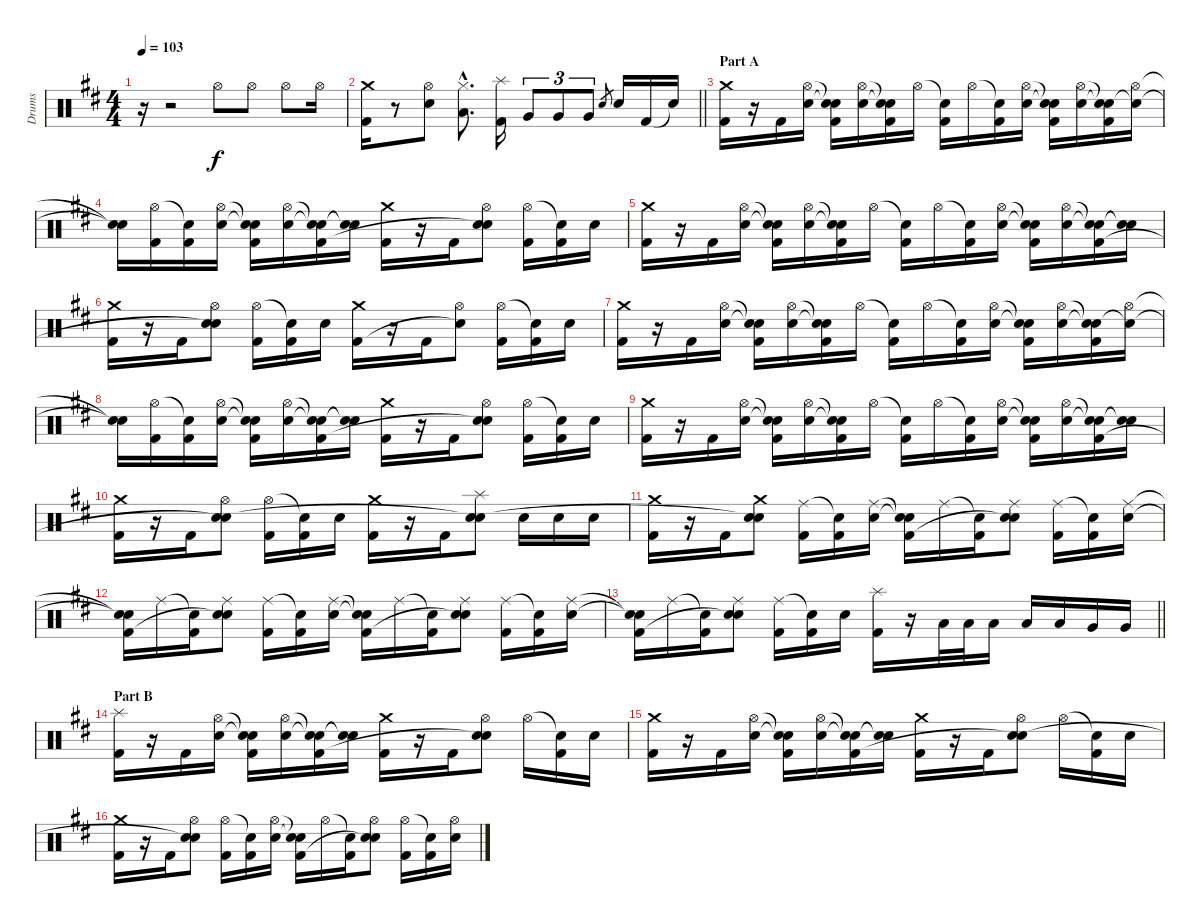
\track ("Drums" "Drums") {instrument percussion}
\staff {score}
\articulation defaults
\ts (4 4)
\tempo 103
\clef neutral
\ks d
r.16{dy f} r.2 "Hi-Hat (open)".8 "Hi-Hat (open)".8 "Hi-Hat (open)".8 "Hi-Hat (open)".16 |
\barLineRight lightlight
("Crash medium (hit)" "Kick (hit) 2").16 r.8 ("Hi-Hat (open)" "Electric Snare (hit)").8 ("Hi-Hat (closed)"{hac} "Low Floor Tom (hit)"{hac}).8{d} ("Splash (hit)" "Kick (hit) 2").16 "Very Low Tom (hit)".8{tu (3 2)} "Very Low Tom (hit)".8{tu (3 2)} "Very Low Tom (hit)".8{tu (3 2)} "Electric Snare (hit)".8{gr} "Electric Snare (hit)".16 "Kick (hit) 2".16 "Snare (hit)"{t}.16 |
\section ("" "Part A")
("Crash medium (hit)" "Kick (hit) 2").16 r.16 "Kick (hit) 2".16 ("Hi-Hat (open)" "Electric Snare (hit)").16 ("Snare (hit)"{t} "Snare (hit)"{t} "Kick (hit) 2").16 ("Hi-Hat (open)" "Electric Snare (hit)").16 ("Snare (hit)"{t} "Snare (hit)"{t} "Kick (hit) 2").16 "Hi-Hat (open)".16 ("Snare (hit)"{t} "Kick (hit) 2").16 "Hi-Hat (open)".16 ("Snare (hit)"{t} "Kick (hit) 2").16 ("Hi-Hat (open)" "Electric Snare (hit)").16 ("Snare (hit)"{t} "Snare (hit)"{t} "Kick (hit) 2").16 ("Hi-Hat (open)" "Electric Snare (hit)").16 ("Snare (hit)"{t} "Snare (hit)"{t} "Kick (hit) 2").16 ("Hi-Hat (open)" "Snare (hit)"{t}).16 |
("Snare (hit)"{t} "Snare (hit)"{t}).16 ("Hi-Hat (open)" "Kick (hit) 2").16 ("Snare (hit)"{t} "Kick (hit) 2").16 ("Hi-Hat (open)" "Electric Snare (hit)").16 ("Snare (hit)"{t} "Snare (hit)"{t} "Kick (hit) 2").16 ("Hi-Hat (open)" "Electric Snare (hit)").16 ("Snare (hit)"{t} "Snare (hit)"{t} "Kick (hit) 2").16 ("Snare (hit)"{t} "Snare (hit)"{t}).16 ("Crash medium (hit)" "Kick (hit) 2").16 r.16 "Kick (hit) 2".16 ("Hi-Hat (open)" "Electric Snare (hit)" "Snare (hit)"{t}).8 ("Hi-Hat (open)" "Kick (hit) 2").16 ("Snare (hit)"{t} "Kick (hit) 2").16 "Electric Snare (hit)".16 |
("Crash medium (hit)" "Kick (hit) 2").16 r.16 "Kick (hit) 2".16 ("Hi-Hat (open)" "Electric Snare (hit)").16 ("Snare (hit)"{t} "Snare (hit)"{t} "Kick (hit) 2").16 ("Hi-Hat (open)" "Electric Snare (hit)").16 ("Snare (hit)"{t} "Snare (hit)"{t} "Kick (hit) 2").16 "Hi-Hat (open)".16 ("Snare (hit)"{t} "Kick (hit) 2").16 "Hi-Hat (open)".16 ("Snare (hit)"{t} "Kick (hit) 2").16 ("Hi-Hat (open)" "Electric Snare (hit)").16 ("Snare (hit)"{t} "Snare (hit)"{t} "Kick (hit) 2").16 ("Hi-Hat (open)" "Electric Snare (hit)").16 ("Snare (hit)"{t} "Snare (hit)"{t} "Kick (hit) 2").16 ("Snare (hit)"{t} "Snare (hit)"{t}).16 |
("Crash medium (hit)" "Kick (hit) 2").16 r.16 "Kick (hit) 2".16 ("Hi-Hat (open)" "Electric Snare (hit)" "Snare (hit)"{t}).8 ("Hi-Hat (open)" "Kick (hit) 2").16 ("Snare (hit)"{t} "Kick (hit) 2").16 "Electric Snare (hit)".16 ("Crash medium (hit)" "Kick (hit) 2").16 r.16 "Kick (hit) 2".16 ("Hi-Hat (open)" "Snare (hit)"{t}).8 ("Hi-Hat (open)" "Kick (hit) 2").16 ("Snare (hit)"{t} "Kick (hit) 2").16 "Electric Snare (hit)".16 |
("Crash medium (hit)" "Kick (hit) 2").16 r.16 "Kick (hit) 2".16 ("Hi-Hat (open)" "Electric Snare (hit)").16 ("Snare (hit)"{t} "Snare (hit)"{t} "Kick (hit) 2").16 ("Hi-Hat (open)" "Electric Snare (hit)").16 ("Snare (hit)"{t} "Snare (hit)"{t} "Kick (hit) 2").16 "Hi-Hat (open)".16 ("Snare (hit)"{t} "Kick (hit) 2").16 "Hi-Hat (open)".16 ("Snare (hit)"{t} "Kick (hit) 2").16 ("Hi-Hat (open)" "Electric Snare (hit)").16 ("Snare (hit)"{t} "Snare (hit)"{t} "Kick (hit) 2").16 ("Hi-Hat (open)" "Electric Snare (hit)").16 ("Snare (hit)"{t} "Snare (hit)"{t} "Kick (hit) 2").16 ("Hi-Hat (open)" "Snare (hit)"{t}).16 |
("Snare (hit)"{t} "Snare (hit)"{t}).16 ("Hi-Hat (open)" "Kick (hit) 2").16 ("Snare (hit)"{t} "Kick (hit) 2").16 ("Hi-Hat (open)" "Electric Snare (hit)").16 ("Snare (hit)"{t} "Snare (hit)"{t} "Kick (hit) 2").16 ("Hi-Hat (open)" "Electric Snare (hit)").16 ("Snare (hit)"{t} "Snare (hit)"{t} "Kick (hit) 2").16 ("Snare (hit)"{t} "Snare (hit)"{t}).16 ("Crash medium (hit)" "Kick (hit) 2").16 r.16 "Kick (hit) 2".16 ("Hi-Hat (open)" "Electric Snare (hit)" "Snare (hit)"{t}).8 ("Hi-Hat (open)" "Kick (hit) 2").16 ("Snare (hit)"{t} "Kick (hit) 2").16 "Electric Snare (hit)".16 |
("Crash medium (hit)" "Kick (hit) 2").16 r.16 "Kick (hit) 2".16 ("Hi-Hat (open)" "Electric Snare (hit)").16 ("Snare (hit)"{t} "Snare (hit)"{t} "Kick (hit) 2").16 ("Hi-Hat (open)" "Electric Snare (hit)").16 ("Snare (hit)"{t} "Snare (hit)"{t} "Kick (hit) 2").16 "Hi-Hat (open)".16 ("Snare (hit)"{t} "Kick (hit) 2").16 "Hi-Hat (open)".16 ("Snare (hit)"{t} "Kick (hit) 2").16 ("Hi-Hat (open)" "Electric Snare (hit)").16 ("Snare (hit)"{t} "Snare (hit)"{t} "Kick (hit) 2").16 ("Hi-Hat (open)" "Electric Snare (hit)").16 ("Snare (hit)"{t} "Snare (hit)"{t} "Kick (hit) 2").16 ("Snare (hit)"{t} "Snare (hit)"{t}).16 |
("Crash medium (hit)" "Kick (hit) 2").16 r.16 "Kick (hit) 2".16 ("Hi-Hat (open)" "Electric Snare (hit)" "Snare (hit)"{t}).8 ("Hi-Hat (open)" "Kick (hit) 2").16 ("Snare (hit)"{t} "Kick (hit) 2").16 "Electric Snare (hit)".16 ("Crash medium (hit)" "Kick (hit) 2").16 r.16 "Kick (hit) 2".16 ("Splash (hit)" "Electric Snare (hit)" "Snare (hit)"{t}).8 "Electric Snare (hit)".16 "Electric Snare (hit)".16 "Electric Snare (hit)".16 |
("Crash medium (hit)" "Kick (hit) 2").16 r.16 "Kick (hit) 2".16 ("Crash medium (hit)" "Electric Snare (hit)" "Snare (hit)"{t}).8 ("Ride (middle)" "Kick (hit) 2").16 ("Snare (hit)"{t} "Kick (hit) 2").16 ("Ride (middle)" "Electric Snare (hit)").16 ("Snare (hit)"{t} "Snare (hit)"{t} "Kick (hit) 2").16 "Ride (middle)".16 ("Snare (hit)"{t} "Kick (hit) 2").16 ("Ride (middle)" "Electric Snare (hit)" "Snare (hit)"{t}).8 ("Ride (middle)" "Kick (hit) 2").16 ("Snare (hit)"{t} "Kick (hit) 2").16 ("Ride (middle)" "Electric Snare (hit)").16 |
("Snare (hit)"{t} "Snare (hit)"{t} "Kick (hit) 2").16 "Ride (middle)".16 ("Snare (hit)"{t} "Kick (hit) 2").16 ("Ride (middle)" "Electric Snare (hit)" "Snare (hit)"{t}).8 ("Ride (middle)" "Kick (hit) 2").16 ("Snare (hit)"{t} "Kick (hit) 2").16 ("Ride (middle)" "Electric Snare (hit)").16 ("Snare (hit)"{t} "Snare (hit)"{t} "Kick (hit) 2").16 "Ride (middle)".16 ("Snare (hit)"{t} "Kick (hit) 2").16 ("Ride (middle)" "Electric Snare (hit)" "Snare (hit)"{t}).8 ("Ride (middle)" "Kick (hit) 2").16 ("Snare (hit)"{t} "Kick (hit) 2").16 ("Ride (middle)" "Electric Snare (hit)").16 |
\barLineRight lightlight
("Snare (hit)"{t} "Snare (hit)"{t} "Kick (hit) 2").16 "Ride (middle)".16 ("Snare (hit)"{t} "Kick (hit) 2").16 ("Ride (middle)" "Electric Snare (hit)" "Snare (hit)"{t}).8 ("Ride (middle)" "Kick (hit) 2").16 ("Snare (hit)"{t} "Kick (hit) 2").16 "Electric Snare (hit)".16 ("Splash (hit)" "Kick (hit) 2").16 r.16 "Low Tom (hit)".32 "Low Tom (hit)".32 "Low Tom (hit)".16 "Low Tom (hit)".16 "Low Tom (hit)".16 "Very Low Tom (hit)".16 "Very Low Tom (hit)".16 |
\section ("" "Part B")
("Splash (hit)" "Kick (hit) 2").16 r.16 "Kick (hit) 2".16 ("Hi-Hat (open)" "Electric Snare (hit)").16 ("Snare (hit)"{t} "Snare (hit)"{t} "Kick (hit) 2").16 ("Hi-Hat (open)" "Electric Snare (hit)").16 ("Snare (hit)"{t} "Snare (hit)"{t} "Kick (hit) 2").16 ("Snare (hit)"{t} "Snare (hit)"{t}).16 ("Crash medium (hit)" "Kick (hit) 2").16 r.16 "Kick (hit) 2".16 ("Hi-Hat (open)" "Electric Snare (hit)" "Snare (hit)"{t}).8 "Hi-Hat (open)".16 ("Snare (hit)"{t} "Kick (hit) 2").16 "Electric Snare (hit)".16 |
("Crash medium (hit)" "Kick (hit) 2").16 r.16 "Kick (hit) 2".16 ("Hi-Hat (open)" "Electric Snare (hit)").16 ("Snare (hit)"{t} "Snare (hit)"{t} "Kick (hit) 2").16 ("Hi-Hat (open)" "Electric Snare (hit)").16 ("Snare (hit)"{t} "Snare (hit)"{t} "Kick (hit) 2").16 ("Snare (hit)"{t} "Snare (hit)"{t}).16 ("Crash medium (hit)" "Kick (hit) 2").16 r.16 "Kick (hit) 2".16 ("Hi-Hat (open)" "Electric Snare (hit)" "Snare (hit)"{t}).8 "Hi-Hat (open)".16 ("Snare (hit)"{t} "Kick (hit) 2").16 "Electric Snare (hit)".16 |
("Crash medium (hit)" "Kick (hit) 2").16 r.16 "Kick (hit) 2".16 ("Hi-Hat (open)" "Electric Snare (hit)" "Snare (hit)"{t}).8 ("Hi-Hat (open)" "Kick (hit) 2").16 ("Snare (hit)"{t} "Kick (hit) 2").16 ("Hi-Hat (open)" "Electric Snare (hit)").16 ("Snare (hit)"{t} "Snare (hit)"{t} "Kick (hit) 2").16 "Hi-Hat (open)".16 ("Snare (hit)"{t} "Kick (hit) 2").16 ("Hi-Hat (open)" "Electric Snare (hit)" "Snare (hit)"{t}).8 ("Hi-Hat (open)" "Kick (hit) 2").16 ("Snare (hit)"{t} "Kick (hit) 2").16 ("Hi-Hat (open)" "Electric Snare (hit)").16
